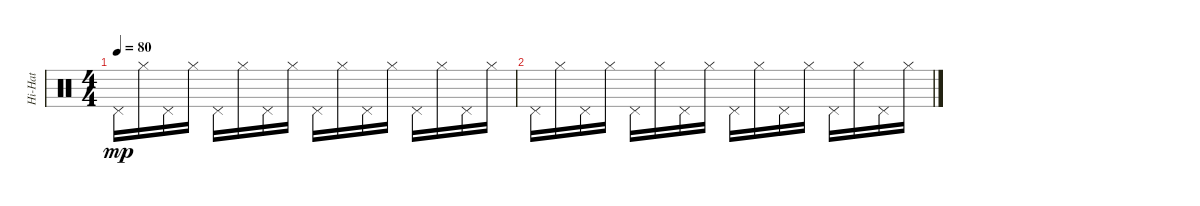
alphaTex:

\track ("Hi-Hat" "Hi-Hat") {instrument percussion}
\staff {score}
\articulation defaults
\ts (4 4)
\tempo 80
\clef neutral
\ks c "Pedal Hi-Hat (hit)".16{dy mp} "Hi-Hat (closed)".16 "Pedal Hi-Hat (hit)".16 "Hi-Hat (closed)".16 "Pedal Hi-Hat (hit)".16 "Hi-Hat (closed)".16 "Pedal Hi-Hat (hit)".16 "Hi-Hat (closed)".16 "Pedal Hi-Hat (hit)".16 "Hi-Hat (closed)".16 "Pedal Hi-Hat (hit)".16 "Hi-Hat (closed)".16 "Pedal Hi-Hat (hit)".16 "Hi-Hat (closed)".16 "Pedal Hi-Hat (hit)".16 "Hi-Hat (closed)".16
|
"Pedal Hi-Hat (hit)".16 "Hi-Hat (closed)".16 "Pedal Hi-Hat (hit)".16 "Hi-Hat (closed)".16 "Pedal Hi-Hat (hit)".16 "Hi-Hat (closed)".16 "Pedal Hi-Hat (hit)".16 "Hi-Hat (closed)".16 "Pedal Hi-Hat (hit)".16 "Hi-Hat (closed)".16 "Pedal Hi-Hat (hit)".16 "Hi-Hat (closed)".16 "Pedal Hi-Hat (hit)".16 "Hi-Hat (closed)".16 "Pedal Hi-Hat (hit)".16 "Hi-Hat (closed)".16
